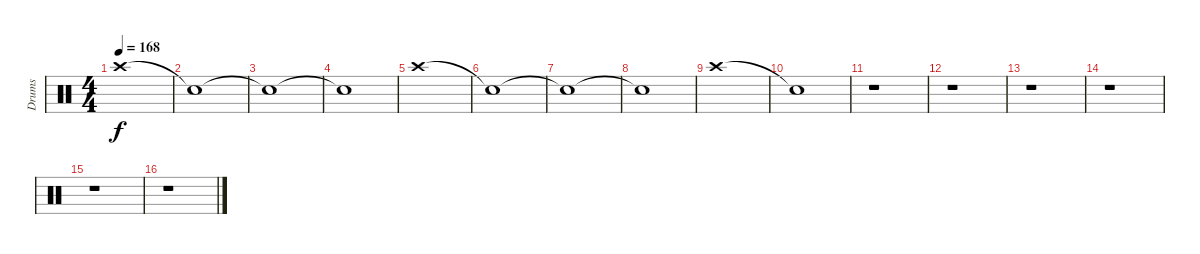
\track ("Drums" "Drums") {instrument percussion}
\staff {score}
\articulation defaults
\ts (4 4)
\section ("" "")
\tempo 168
\clef neutral
\ks c "Crash high (hit)".1{dy f}
|
"Snare (hit)"{t}.1 |
"Snare (hit)"{t}.1 |
"Snare (hit)"{t}.1 |
"Crash high (hit)".1 |
"Snare (hit)"{t}.1 |
"Snare (hit)"{t}.1 |
"Snare (hit)"{t}.1 |
\section ("" "")
"Crash high (hit)".1 |
"Snare (hit)"{t}.1 |
r.1 |
r.1 |
r.1 |
r.1 |
r.1 |
r.1
